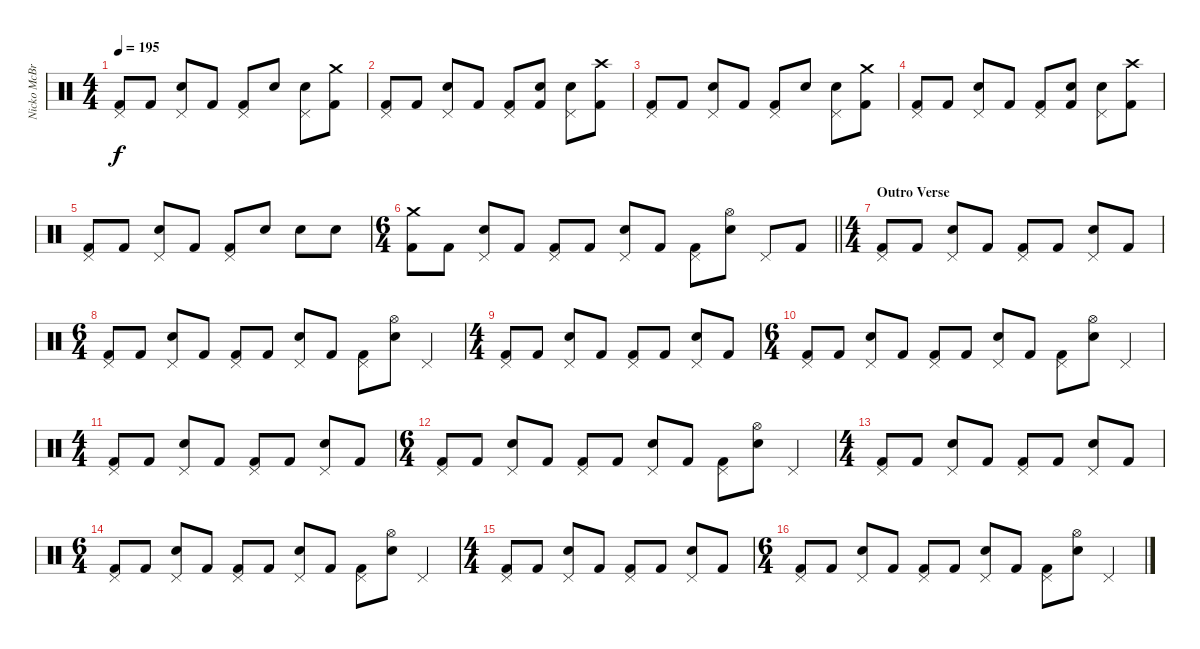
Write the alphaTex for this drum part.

\track ("Nicko McBrain" "Nicko McBr") {instrument percussion}
\staff {score}
\articulation defaults
\ts (4 4)
\tempo 195
\clef neutral
\ks c
("Pedal Hi-Hat (hit)" "Kick (hit) 2").8{dy f} "Kick (hit) 2".8 ("Pedal Hi-Hat (hit)" "Snare (hit) 2").8 "Kick (hit) 2".8 ("Pedal Hi-Hat (hit)" "Kick (hit) 2").8 "Snare (hit) 2".8 ("Pedal Hi-Hat (hit)" "Snare (hit) 2").8 ("Crash medium (hit)" "Kick (hit) 2").8 |
("Pedal Hi-Hat (hit)" "Kick (hit) 2").8 "Kick (hit) 2".8 ("Pedal Hi-Hat (hit)" "Snare (hit) 2").8 "Kick (hit) 2".8 ("Pedal Hi-Hat (hit)" "Kick (hit) 2").8 ("Snare (hit) 2" "Kick (hit) 2").8 ("Pedal Hi-Hat (hit)" "Snare (hit) 2").8 ("Crash high (hit)" "Kick (hit) 2").8 |
("Pedal Hi-Hat (hit)" "Kick (hit) 2").8 "Kick (hit) 2".8 ("Pedal Hi-Hat (hit)" "Snare (hit) 2").8 "Kick (hit) 2".8 ("Pedal Hi-Hat (hit)" "Kick (hit) 2").8 "Snare (hit) 2".8 ("Pedal Hi-Hat (hit)" "Snare (hit) 2").8 ("Crash medium (hit)" "Kick (hit) 2").8 |
("Pedal Hi-Hat (hit)" "Kick (hit) 2").8 "Kick (hit) 2".8 ("Pedal Hi-Hat (hit)" "Snare (hit) 2").8 "Kick (hit) 2".8 ("Pedal Hi-Hat (hit)" "Kick (hit) 2").8 ("Snare (hit) 2" "Kick (hit) 2").8 ("Pedal Hi-Hat (hit)" "Snare (hit) 2").8 ("Crash high (hit)" "Kick (hit) 2").8 |
("Pedal Hi-Hat (hit)" "Kick (hit) 2").8 "Kick (hit) 2".8 ("Pedal Hi-Hat (hit)" "Snare (hit) 2").8 "Kick (hit) 2".8 ("Pedal Hi-Hat (hit)" "Kick (hit) 2").8 "Snare (hit) 2".8 "Snare (hit) 2".8 "Snare (hit) 2".8 |
\ts (6 4)
\barLineRight lightlight
("Crash medium (hit)" "Kick (hit) 2").8 "Kick (hit) 2".8 ("Pedal Hi-Hat (hit)" "Snare (hit) 2").8 "Kick (hit) 2".8 ("Pedal Hi-Hat (hit)" "Kick (hit) 2").8 "Kick (hit) 2".8 ("Pedal Hi-Hat (hit)" "Snare (hit) 2").8 "Kick (hit) 2".8 ("Pedal Hi-Hat (hit)" "Kick (hit) 2").8 ("Hi-Hat (open)" "Snare (hit) 2").8 "Pedal Hi-Hat (hit)".8 "Kick (hit) 2".8 |
\ts (4 4)
\section ("" "Outro Verse")
("Pedal Hi-Hat (hit)" "Kick (hit) 2").8 "Kick (hit) 2".8 ("Pedal Hi-Hat (hit)" "Snare (hit) 2").8 "Kick (hit) 2".8 ("Pedal Hi-Hat (hit)" "Kick (hit) 2").8 "Kick (hit) 2".8 ("Pedal Hi-Hat (hit)" "Snare (hit) 2").8 "Kick (hit) 2".8 |
\ts (6 4)
("Pedal Hi-Hat (hit)" "Kick (hit) 2").8 "Kick (hit) 2".8 ("Pedal Hi-Hat (hit)" "Snare (hit) 2").8 "Kick (hit) 2".8 ("Pedal Hi-Hat (hit)" "Kick (hit) 2").8 "Kick (hit) 2".8 ("Pedal Hi-Hat (hit)" "Snare (hit) 2").8 "Kick (hit) 2".8 ("Pedal Hi-Hat (hit)" "Kick (hit) 2").8 ("Hi-Hat (open)" "Snare (hit) 2").8 "Pedal Hi-Hat (hit)".4 |
\ts (4 4)
("Pedal Hi-Hat (hit)" "Kick (hit) 2").8 "Kick (hit) 2".8 ("Pedal Hi-Hat (hit)" "Snare (hit) 2").8 "Kick (hit) 2".8 ("Pedal Hi-Hat (hit)" "Kick (hit) 2").8 "Kick (hit) 2".8 ("Pedal Hi-Hat (hit)" "Snare (hit) 2").8 "Kick (hit) 2".8 |
\ts (6 4)
("Pedal Hi-Hat (hit)" "Kick (hit) 2").8 "Kick (hit) 2".8 ("Pedal Hi-Hat (hit)" "Snare (hit) 2").8 "Kick (hit) 2".8 ("Pedal Hi-Hat (hit)" "Kick (hit) 2").8 "Kick (hit) 2".8 ("Pedal Hi-Hat (hit)" "Snare (hit) 2").8 "Kick (hit) 2".8 ("Pedal Hi-Hat (hit)" "Kick (hit) 2").8 ("Hi-Hat (open)" "Snare (hit) 2").8 "Pedal Hi-Hat (hit)".4 |
\ts (4 4)
("Pedal Hi-Hat (hit)" "Kick (hit) 2").8 "Kick (hit) 2".8 ("Pedal Hi-Hat (hit)" "Snare (hit) 2").8 "Kick (hit) 2".8 ("Pedal Hi-Hat (hit)" "Kick (hit) 2").8 "Kick (hit) 2".8 ("Pedal Hi-Hat (hit)" "Snare (hit) 2").8 "Kick (hit) 2".8 |
\ts (6 4)
("Pedal Hi-Hat (hit)" "Kick (hit) 2").8 "Kick (hit) 2".8 ("Pedal Hi-Hat (hit)" "Snare (hit) 2").8 "Kick (hit) 2".8 ("Pedal Hi-Hat (hit)" "Kick (hit) 2").8 "Kick (hit) 2".8 ("Pedal Hi-Hat (hit)" "Snare (hit) 2").8 "Kick (hit) 2".8 ("Pedal Hi-Hat (hit)" "Kick (hit) 2").8 ("Hi-Hat (open)" "Snare (hit) 2").8 "Pedal Hi-Hat (hit)".4 |
\ts (4 4)
("Pedal Hi-Hat (hit)" "Kick (hit) 2").8 "Kick (hit) 2".8 ("Pedal Hi-Hat (hit)" "Snare (hit) 2").8 "Kick (hit) 2".8 ("Pedal Hi-Hat (hit)" "Kick (hit) 2").8 "Kick (hit) 2".8 ("Pedal Hi-Hat (hit)" "Snare (hit) 2").8 "Kick (hit) 2".8 |
\ts (6 4)
("Pedal Hi-Hat (hit)" "Kick (hit) 2").8 "Kick (hit) 2".8 ("Pedal Hi-Hat (hit)" "Snare (hit) 2").8 "Kick (hit) 2".8 ("Pedal Hi-Hat (hit)" "Kick (hit) 2").8 "Kick (hit) 2".8 ("Pedal Hi-Hat (hit)" "Snare (hit) 2").8 "Kick (hit) 2".8 ("Pedal Hi-Hat (hit)" "Kick (hit) 2").8 ("Hi-Hat (open)" "Snare (hit) 2").8 "Pedal Hi-Hat (hit)".4 |
\ts (4 4)
("Pedal Hi-Hat (hit)" "Kick (hit) 2").8 "Kick (hit) 2".8 ("Pedal Hi-Hat (hit)" "Snare (hit) 2").8 "Kick (hit) 2".8 ("Pedal Hi-Hat (hit)" "Kick (hit) 2").8 "Kick (hit) 2".8 ("Pedal Hi-Hat (hit)" "Snare (hit) 2").8 "Kick (hit) 2".8 |
\ts (6 4)
("Pedal Hi-Hat (hit)" "Kick (hit) 2").8 "Kick (hit) 2".8 ("Pedal Hi-Hat (hit)" "Snare (hit) 2").8 "Kick (hit) 2".8 ("Pedal Hi-Hat (hit)" "Kick (hit) 2").8 "Kick (hit) 2".8 ("Pedal Hi-Hat (hit)" "Snare (hit) 2").8 "Kick (hit) 2".8 ("Pedal Hi-Hat (hit)" "Kick (hit) 2").8 ("Hi-Hat (open)" "Snare (hit) 2").8 "Pedal Hi-Hat (hit)".4
